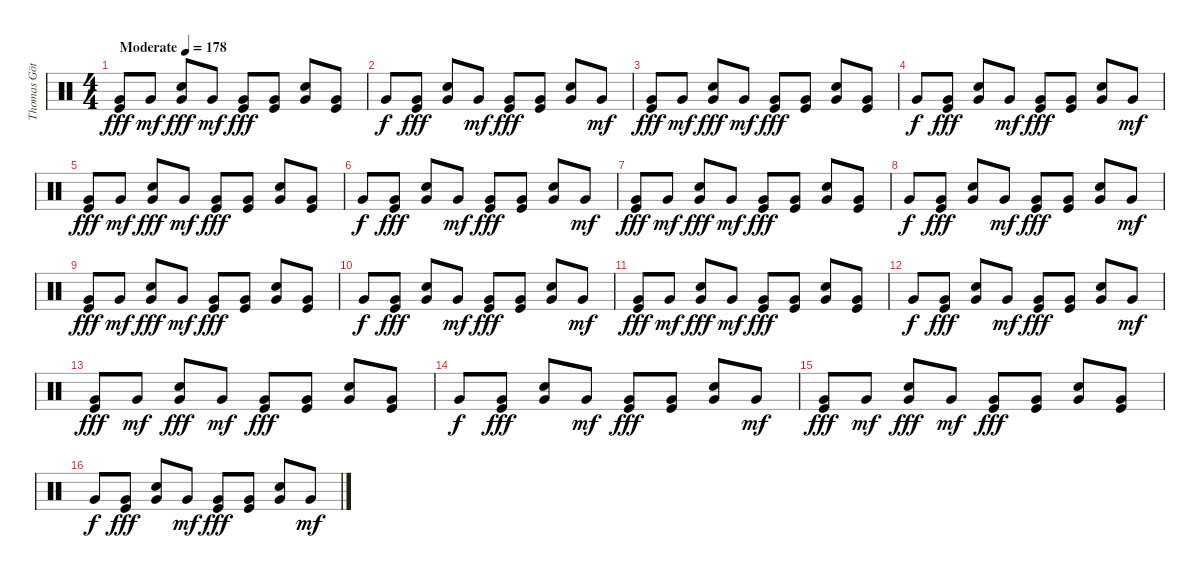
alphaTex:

\track ("Thomas Götz" "Thomas Göt") {instrument percussion}
\staff {score}
\articulation defaults
\ts (4 4)
\tempo (178 "Moderate")
\clef neutral
\ks c
("Very Low Tom (hit)" "Kick (hit)").8{dy fff} "Very Low Tom (hit)".8{dy mf} ("Very Low Tom (hit)" "Electric Snare (hit)").8{dy fff} "Very Low Tom (hit)".8{dy mf} ("Very Low Tom (hit)" "Kick (hit)").8{dy fff} ("Very Low Tom (hit)" "Kick (hit)").8 ("Very Low Tom (hit)" "Electric Snare (hit)").8 ("Very Low Tom (hit)" "Kick (hit)").8 |
"Very Low Tom (hit)".8{dy f} ("Very Low Tom (hit)" "Kick (hit)").8{dy fff} ("Very Low Tom (hit)" "Electric Snare (hit)").8 "Very Low Tom (hit)".8{dy mf} ("Very Low Tom (hit)" "Kick (hit)").8{dy fff} ("Very Low Tom (hit)" "Kick (hit)").8 ("Very Low Tom (hit)" "Electric Snare (hit)").8 "Very Low Tom (hit)".8{dy mf} |
("Very Low Tom (hit)" "Kick (hit)").8{dy fff} "Very Low Tom (hit)".8{dy mf} ("Very Low Tom (hit)" "Electric Snare (hit)").8{dy fff} "Very Low Tom (hit)".8{dy mf} ("Very Low Tom (hit)" "Kick (hit)").8{dy fff} ("Very Low Tom (hit)" "Kick (hit)").8 ("Very Low Tom (hit)" "Electric Snare (hit)").8 ("Very Low Tom (hit)" "Kick (hit)").8 |
"Very Low Tom (hit)".8{dy f} ("Very Low Tom (hit)" "Kick (hit)").8{dy fff} ("Very Low Tom (hit)" "Electric Snare (hit)").8 "Very Low Tom (hit)".8{dy mf} ("Very Low Tom (hit)" "Kick (hit)").8{dy fff} ("Very Low Tom (hit)" "Kick (hit)").8 ("Very Low Tom (hit)" "Electric Snare (hit)").8 "Very Low Tom (hit)".8{dy mf} |
("Very Low Tom (hit)" "Kick (hit)").8{dy fff} "Very Low Tom (hit)".8{dy mf} ("Very Low Tom (hit)" "Electric Snare (hit)").8{dy fff} "Very Low Tom (hit)".8{dy mf} ("Very Low Tom (hit)" "Kick (hit)").8{dy fff} ("Very Low Tom (hit)" "Kick (hit)").8 ("Very Low Tom (hit)" "Electric Snare (hit)").8 ("Very Low Tom (hit)" "Kick (hit)").8 |
"Very Low Tom (hit)".8{dy f} ("Very Low Tom (hit)" "Kick (hit)").8{dy fff} ("Very Low Tom (hit)" "Electric Snare (hit)").8 "Very Low Tom (hit)".8{dy mf} ("Very Low Tom (hit)" "Kick (hit)").8{dy fff} ("Very Low Tom (hit)" "Kick (hit)").8 ("Very Low Tom (hit)" "Electric Snare (hit)").8 "Very Low Tom (hit)".8{dy mf} |
("Very Low Tom (hit)" "Kick (hit)").8{dy fff} "Very Low Tom (hit)".8{dy mf} ("Very Low Tom (hit)" "Electric Snare (hit)").8{dy fff} "Very Low Tom (hit)".8{dy mf} ("Very Low Tom (hit)" "Kick (hit)").8{dy fff} ("Very Low Tom (hit)" "Kick (hit)").8 ("Very Low Tom (hit)" "Electric Snare (hit)").8 ("Very Low Tom (hit)" "Kick (hit)").8 |
"Very Low Tom (hit)".8{dy f} ("Very Low Tom (hit)" "Kick (hit)").8{dy fff} ("Very Low Tom (hit)" "Electric Snare (hit)").8 "Very Low Tom (hit)".8{dy mf} ("Very Low Tom (hit)" "Kick (hit)").8{dy fff} ("Very Low Tom (hit)" "Kick (hit)").8 ("Very Low Tom (hit)" "Electric Snare (hit)").8 "Very Low Tom (hit)".8{dy mf} |
("Very Low Tom (hit)" "Kick (hit)").8{dy fff} "Very Low Tom (hit)".8{dy mf} ("Very Low Tom (hit)" "Electric Snare (hit)").8{dy fff} "Very Low Tom (hit)".8{dy mf} ("Very Low Tom (hit)" "Kick (hit)").8{dy fff} ("Very Low Tom (hit)" "Kick (hit)").8 ("Very Low Tom (hit)" "Electric Snare (hit)").8 ("Very Low Tom (hit)" "Kick (hit)").8 |
"Very Low Tom (hit)".8{dy f} ("Very Low Tom (hit)" "Kick (hit)").8{dy fff} ("Very Low Tom (hit)" "Electric Snare (hit)").8 "Very Low Tom (hit)".8{dy mf} ("Very Low Tom (hit)" "Kick (hit)").8{dy fff} ("Very Low Tom (hit)" "Kick (hit)").8 ("Very Low Tom (hit)" "Electric Snare (hit)").8 "Very Low Tom (hit)".8{dy mf} |
("Very Low Tom (hit)" "Kick (hit)").8{dy fff} "Very Low Tom (hit)".8{dy mf} ("Very Low Tom (hit)" "Electric Snare (hit)").8{dy fff} "Very Low Tom (hit)".8{dy mf} ("Very Low Tom (hit)" "Kick (hit)").8{dy fff} ("Very Low Tom (hit)" "Kick (hit)").8 ("Very Low Tom (hit)" "Electric Snare (hit)").8 ("Very Low Tom (hit)" "Kick (hit)").8 |
"Very Low Tom (hit)".8{dy f} ("Very Low Tom (hit)" "Kick (hit)").8{dy fff} ("Very Low Tom (hit)" "Electric Snare (hit)").8 "Very Low Tom (hit)".8{dy mf} ("Very Low Tom (hit)" "Kick (hit)").8{dy fff} ("Very Low Tom (hit)" "Kick (hit)").8 ("Very Low Tom (hit)" "Electric Snare (hit)").8 "Very Low Tom (hit)".8{dy mf} |
("Very Low Tom (hit)" "Kick (hit)").8{dy fff} "Very Low Tom (hit)".8{dy mf} ("Very Low Tom (hit)" "Electric Snare (hit)").8{dy fff} "Very Low Tom (hit)".8{dy mf} ("Very Low Tom (hit)" "Kick (hit)").8{dy fff} ("Very Low Tom (hit)" "Kick (hit)").8 ("Very Low Tom (hit)" "Electric Snare (hit)").8 ("Very Low Tom (hit)" "Kick (hit)").8 |
"Very Low Tom (hit)".8{dy f} ("Very Low Tom (hit)" "Kick (hit)").8{dy fff} ("Very Low Tom (hit)" "Electric Snare (hit)").8 "Very Low Tom (hit)".8{dy mf} ("Very Low Tom (hit)" "Kick (hit)").8{dy fff} ("Very Low Tom (hit)" "Kick (hit)").8 ("Very Low Tom (hit)" "Electric Snare (hit)").8 "Very Low Tom (hit)".8{dy mf} |
("Very Low Tom (hit)" "Kick (hit)").8{dy fff} "Very Low Tom (hit)".8{dy mf} ("Very Low Tom (hit)" "Electric Snare (hit)").8{dy fff} "Very Low Tom (hit)".8{dy mf} ("Very Low Tom (hit)" "Kick (hit)").8{dy fff} ("Very Low Tom (hit)" "Kick (hit)").8 ("Very Low Tom (hit)" "Electric Snare (hit)").8 ("Very Low Tom (hit)" "Kick (hit)").8 |
"Very Low Tom (hit)".8{dy f} ("Very Low Tom (hit)" "Kick (hit)").8{dy fff} ("Very Low Tom (hit)" "Electric Snare (hit)").8 "Very Low Tom (hit)".8{dy mf} ("Very Low Tom (hit)" "Kick (hit)").8{dy fff} ("Very Low Tom (hit)" "Kick (hit)").8 ("Very Low Tom (hit)" "Electric Snare (hit)").8 "Very Low Tom (hit)".8{dy mf}
